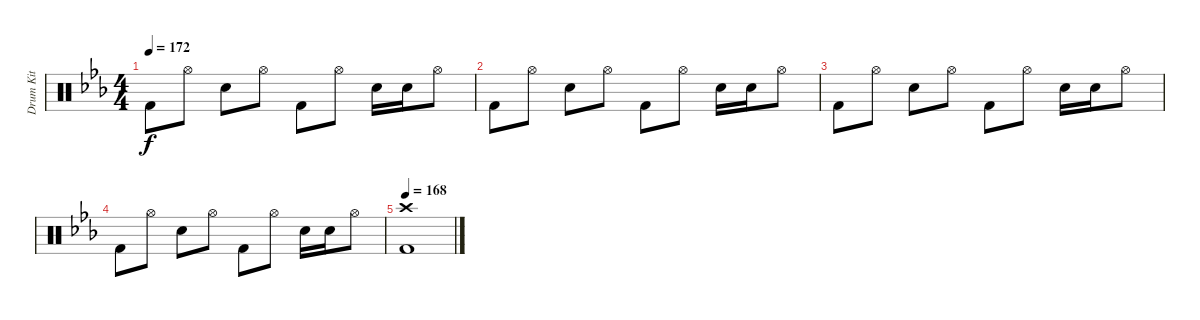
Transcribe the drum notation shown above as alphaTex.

\track ("Drum Kit" "Drum Kit") {instrument percussion}
\staff {score}
\articulation defaults
\ts (4 4)
\tempo 172
\clef neutral
\ks cminor "Kick (hit) 2".8{dy f} "Hi-Hat (open)".8 "Electric Snare (hit)".8 "Hi-Hat (open)".8 "Kick (hit) 2".8 "Hi-Hat (open)".8 "Electric Snare (hit)".16 "Electric Snare (hit)".16 "Hi-Hat (open)".8
|
"Kick (hit) 2".8 "Hi-Hat (open)".8 "Electric Snare (hit)".8 "Hi-Hat (open)".8 "Kick (hit) 2".8 "Hi-Hat (open)".8 "Electric Snare (hit)".16 "Electric Snare (hit)".16 "Hi-Hat (open)".8 |
"Kick (hit) 2".8 "Hi-Hat (open)".8 "Electric Snare (hit)".8 "Hi-Hat (open)".8 "Kick (hit) 2".8 "Hi-Hat (open)".8 "Electric Snare (hit)".16 "Electric Snare (hit)".16 "Hi-Hat (open)".8 |
"Kick (hit) 2".8 "Hi-Hat (open)".8 "Electric Snare (hit)".8 "Hi-Hat (open)".8 "Kick (hit) 2".8 "Hi-Hat (open)".8 "Electric Snare (hit)".16 "Electric Snare (hit)".16 "Hi-Hat (open)".8 |
\tempo 168
("Crash high (hit)" "Kick (hit) 2").1
